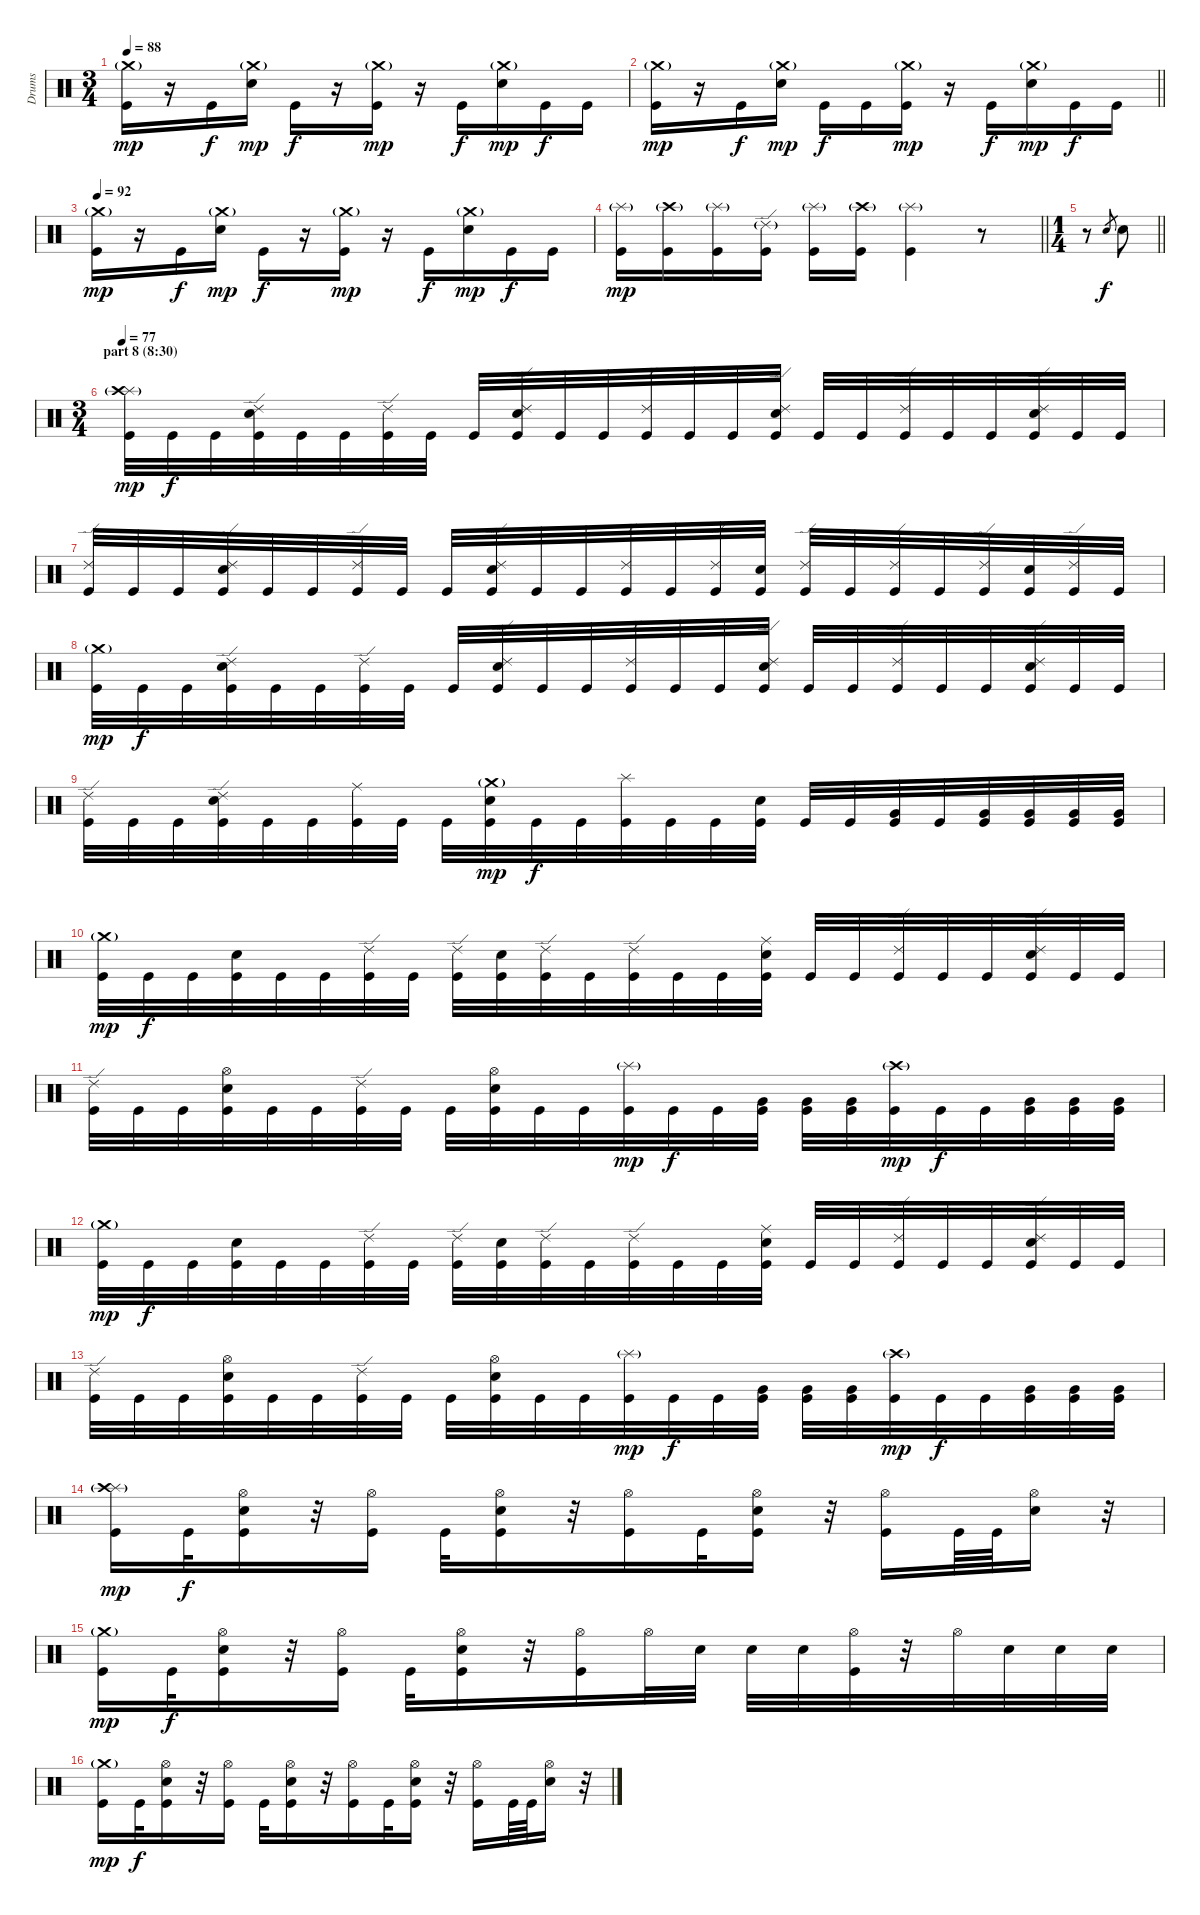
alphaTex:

\track ("Drums" "Drums") {instrument percussion}
\staff {score}
\articulation defaults
\ts (3 4)
\tempo 88
\clef neutral
\ks c
("Crash medium (hit)"{g} "Kick (hit)").16{dy mp} r.16 "Kick (hit)".16{dy f} ("Crash medium (hit)"{g} "Snare (hit) 2").16{dy mp} "Kick (hit)".16{dy f} r.16 ("Crash medium (hit)"{g} "Kick (hit)").16{dy mp} r.16 "Kick (hit)".16{dy f} ("Crash medium (hit)"{g} "Snare (hit) 2").16{dy mp} "Kick (hit)".16{dy f} "Kick (hit)".16 |
\barLineRight lightlight
("Crash medium (hit)"{g} "Kick (hit)").16{dy mp} r.16 "Kick (hit)".16{dy f} ("Crash medium (hit)"{g} "Snare (hit) 2").16{dy mp} "Kick (hit)".16{dy f} "Kick (hit)".16 ("Crash medium (hit)"{g} "Kick (hit)").16{dy mp} r.16 "Kick (hit)".16{dy f} ("Crash medium (hit)"{g} "Snare (hit) 2").16{dy mp} "Kick (hit)".16{dy f} "Kick (hit)".16 |
\tempo 90
\tempo 92
("Crash medium (hit)"{g} "Kick (hit)").16{dy mp} r.16 "Kick (hit)".16{dy f} ("Crash medium (hit)"{g} "Snare (hit) 2").16{dy mp} "Kick (hit)".16{dy f} r.16 ("Crash medium (hit)"{g} "Kick (hit)").16{dy mp} r.16 "Kick (hit)".16{dy f} ("Crash medium (hit)"{g} "Snare (hit) 2").16{dy mp} "Kick (hit)".16{dy f} "Kick (hit)".16 |
\barLineRight lightlight
("Splash (hit)"{g} "Kick (hit)").16{dy mp} ("Crash high (hit)"{g} "Kick (hit)").16 ("Splash (hit)"{g} "Kick (hit)").16 ("Ride (edge) 2"{g} "Kick (hit)").16 ("Splash (hit)"{g} "Kick (hit)").16 ("Crash high (hit)"{g} "Kick (hit)").16 ("Splash (hit)"{g} "Kick (hit)").4 r.8 |
\ts (1 4)
\barLineRight lightlight
r.8 "Snare (hit) 2".8{gr dy f} "Snare (hit) 2".8 |
\ts (3 4)
\section ("" "part 8 (8:30)")
\tempo 77
("Splash (hit)"{g} "Crash high (hit)"{g} "Kick (hit)").32{dy mp} "Kick (hit)".32{dy f} "Kick (hit)".32 ("Ride (edge) 2" "Snare (hit) 2" "Kick (hit)").32 "Kick (hit)".32 "Kick (hit)".32 ("Ride (edge) 2" "Kick (hit)").32 "Kick (hit)".32 "Kick (hit)".32 ("Ride (edge) 2" "Snare (hit) 2" "Kick (hit)").32 "Kick (hit)".32 "Kick (hit)".32 ("Ride (edge) 2" "Kick (hit)").32 "Kick (hit)".32 "Kick (hit)".32 ("Ride (edge) 2" "Snare (hit) 2" "Kick (hit)").32 "Kick (hit)".32 "Kick (hit)".32 ("Ride (edge) 2" "Kick (hit)").32 "Kick (hit)".32 "Kick (hit)".32 ("Ride (edge) 2" "Snare (hit) 2" "Kick (hit)").32 "Kick (hit)".32 "Kick (hit)".32 |
("Ride (edge) 2" "Kick (hit)").32 "Kick (hit)".32 "Kick (hit)".32 ("Ride (edge) 2" "Snare (hit) 2" "Kick (hit)").32 "Kick (hit)".32 "Kick (hit)".32 ("Ride (edge) 2" "Kick (hit)").32 "Kick (hit)".32 "Kick (hit)".32 ("Ride (edge) 2" "Snare (hit) 2" "Kick (hit)").32 "Kick (hit)".32 "Kick (hit)".32 ("Ride (edge) 2" "Kick (hit)").32 "Kick (hit)".32 ("Ride (edge) 2" "Kick (hit)").32 ("Snare (hit) 2" "Kick (hit)").32 ("Ride (edge) 2" "Kick (hit)").32 "Kick (hit)".32 ("Ride (edge) 2" "Kick (hit)").32 "Kick (hit)".32 ("Ride (edge) 2" "Kick (hit)").32 ("Snare (hit) 2" "Kick (hit)").32 ("Ride (edge) 2" "Kick (hit)").32 "Kick (hit)".32 |
("Crash medium (hit)"{g} "Kick (hit)").32{dy mp} "Kick (hit)".32{dy f} "Kick (hit)".32 ("Ride (edge) 2" "Snare (hit) 2" "Kick (hit)").32 "Kick (hit)".32 "Kick (hit)".32 ("Ride (edge) 2" "Kick (hit)").32 "Kick (hit)".32 "Kick (hit)".32 ("Ride (edge) 2" "Snare (hit) 2" "Kick (hit)").32 "Kick (hit)".32 "Kick (hit)".32 ("Ride (edge) 2" "Kick (hit)").32 "Kick (hit)".32 "Kick (hit)".32 ("Ride (edge) 2" "Snare (hit) 2" "Kick (hit)").32 "Kick (hit)".32 "Kick (hit)".32 ("Ride (edge) 2" "Kick (hit)").32 "Kick (hit)".32 "Kick (hit)".32 ("Ride (edge) 2" "Snare (hit) 2" "Kick (hit)").32 "Kick (hit)".32 "Kick (hit)".32 |
("Ride (edge) 2" "Kick (hit)").32 "Kick (hit)".32 "Kick (hit)".32 ("Ride (edge) 2" "Snare (hit) 2" "Kick (hit)").32 "Kick (hit)".32 "Kick (hit)".32 ("Ride (middle)" "Kick (hit)").32 "Kick (hit)".32 "Kick (hit)".32 ("Crash medium (hit)"{g} "Snare (hit) 2" "Kick (hit)").32{dy mp} "Kick (hit)".32{dy f} "Kick (hit)".32 ("Splash (hit)" "Kick (hit)").32 "Kick (hit)".32 "Kick (hit)".32 ("Snare (hit) 2" "Kick (hit)").32 "Kick (hit)".32 "Kick (hit)".32 ("Very Low Tom (hit)" "Kick (hit)").32 "Kick (hit)".32 ("Very Low Tom (hit)" "Kick (hit)").32 ("Very Low Tom (hit)" "Kick (hit)").32 ("Very Low Tom (hit)" "Kick (hit)").32 ("Very Low Tom (hit)" "Kick (hit)").32 |
("Crash medium (hit)"{g} "Kick (hit)").32{dy mp} "Kick (hit)".32{dy f} "Kick (hit)".32 ("Snare (hit) 2" "Kick (hit)").32 "Kick (hit)".32 "Kick (hit)".32 ("Ride (edge) 2" "Kick (hit)").32 "Kick (hit)".32 ("Ride (edge) 2" "Kick (hit)").32 ("Snare (hit) 2" "Kick (hit)").32 ("Ride (edge) 2" "Kick (hit)").32 "Kick (hit)".32 ("Ride (edge) 2" "Kick (hit)").32 "Kick (hit)".32 "Kick (hit)".32 ("Ride (middle)" "Snare (hit) 2" "Kick (hit)").32 "Kick (hit)".32 "Kick (hit)".32 ("Ride (edge) 2" "Kick (hit)").32 "Kick (hit)".32 "Kick (hit)".32 ("Ride (edge) 2" "Snare (hit) 2" "Kick (hit)").32 "Kick (hit)".32 "Kick (hit)".32 |
("Ride (edge) 2" "Kick (hit)").32 "Kick (hit)".32 "Kick (hit)".32 ("Hi-Hat (open)" "Snare (hit) 2" "Kick (hit)").32 "Kick (hit)".32 "Kick (hit)".32 ("Ride (edge) 2" "Kick (hit)").32 "Kick (hit)".32 "Kick (hit)".32 ("Hi-Hat (open)" "Snare (hit) 2" "Kick (hit)").32 "Kick (hit)".32 "Kick (hit)".32 ("Splash (hit)"{g} "Kick (hit)").32{dy mp} "Kick (hit)".32{dy f} "Kick (hit)".32 ("Very Low Tom (hit)" "Kick (hit)").32 ("Very Low Tom (hit)" "Kick (hit)").32 ("Very Low Tom (hit)" "Kick (hit)").32 ("Crash high (hit)"{g} "Kick (hit)").32{dy mp} "Kick (hit)".32{dy f} "Kick (hit)".32 ("Very Low Tom (hit)" "Kick (hit)").32 ("Very Low Tom (hit)" "Kick (hit)").32 ("Very Low Tom (hit)" "Kick (hit)").32 |
("Crash medium (hit)"{g} "Kick (hit)").32{dy mp} "Kick (hit)".32{dy f} "Kick (hit)".32 ("Snare (hit) 2" "Kick (hit)").32 "Kick (hit)".32 "Kick (hit)".32 ("Ride (edge) 2" "Kick (hit)").32 "Kick (hit)".32 ("Ride (edge) 2" "Kick (hit)").32 ("Snare (hit) 2" "Kick (hit)").32 ("Ride (edge) 2" "Kick (hit)").32 "Kick (hit)".32 ("Ride (edge) 2" "Kick (hit)").32 "Kick (hit)".32 "Kick (hit)".32 ("Ride (middle)" "Snare (hit) 2" "Kick (hit)").32 "Kick (hit)".32 "Kick (hit)".32 ("Ride (edge) 2" "Kick (hit)").32 "Kick (hit)".32 "Kick (hit)".32 ("Ride (edge) 2" "Snare (hit) 2" "Kick (hit)").32 "Kick (hit)".32 "Kick (hit)".32 |
("Ride (edge) 2" "Kick (hit)").32 "Kick (hit)".32 "Kick (hit)".32 ("Hi-Hat (open)" "Snare (hit) 2" "Kick (hit)").32 "Kick (hit)".32 "Kick (hit)".32 ("Ride (edge) 2" "Kick (hit)").32 "Kick (hit)".32 "Kick (hit)".32 ("Hi-Hat (open)" "Snare (hit) 2" "Kick (hit)").32 "Kick (hit)".32 "Kick (hit)".32 ("Splash (hit)"{g} "Kick (hit)").32{dy mp} "Kick (hit)".32{dy f} "Kick (hit)".32 ("Very Low Tom (hit)" "Kick (hit)").32 ("Very Low Tom (hit)" "Kick (hit)").32 ("Very Low Tom (hit)" "Kick (hit)").32 ("Crash high (hit)"{g} "Kick (hit)").32{dy mp} "Kick (hit)".32{dy f} "Kick (hit)".32 ("Very Low Tom (hit)" "Kick (hit)").32 ("Very Low Tom (hit)" "Kick (hit)").32 ("Very Low Tom (hit)" "Kick (hit)").32 |
("Splash (hit)"{g} "Crash high (hit)"{g} "Kick (hit)").16{dy mp} "Kick (hit)".32{dy f} ("Hi-Hat (open)" "Snare (hit) 2" "Kick (hit)").16 r.32 ("Hi-Hat (open)" "Kick (hit)").16 "Kick (hit)".32 ("Hi-Hat (open)" "Snare (hit) 2" "Kick (hit)").16 r.32 ("Hi-Hat (open)" "Kick (hit)").16 "Kick (hit)".32 ("Hi-Hat (open)" "Snare (hit) 2" "Kick (hit)").16 r.32 ("Hi-Hat (open)" "Kick (hit)").16 "Kick (hit)".64 "Kick (hit)".64 ("Hi-Hat (open)" "Snare (hit) 2").16 r.32 |
("Crash medium (hit)"{g} "Kick (hit)").16{dy mp} "Kick (hit)".32{dy f} ("Hi-Hat (open)" "Snare (hit) 2" "Kick (hit)").16 r.32 ("Hi-Hat (open)" "Kick (hit)").16 "Kick (hit)".32 ("Hi-Hat (open)" "Snare (hit) 2" "Kick (hit)").16 r.32 ("Hi-Hat (open)" "Kick (hit)").16 "Hi-Hat (open)".32 "Snare (hit) 2".32 "Snare (hit) 2".32 "Snare (hit) 2".32 ("Hi-Hat (open)" "Kick (hit)").32 r.32 "Hi-Hat (open)".32 "Snare (hit) 2".32 "Snare (hit) 2".32 "Snare (hit) 2".32 |
("Crash medium (hit)"{g} "Kick (hit)").16{dy mp} "Kick (hit)".32{dy f} ("Hi-Hat (open)" "Snare (hit) 2" "Kick (hit)").16 r.32 ("Hi-Hat (open)" "Kick (hit)").16 "Kick (hit)".32 ("Hi-Hat (open)" "Snare (hit) 2" "Kick (hit)").16 r.32 ("Hi-Hat (open)" "Kick (hit)").16 "Kick (hit)".32 ("Hi-Hat (open)" "Snare (hit) 2" "Kick (hit)").16 r.32 ("Hi-Hat (open)" "Kick (hit)").16 "Kick (hit)".64 "Kick (hit)".64 ("Hi-Hat (open)" "Snare (hit) 2").16 r.32
